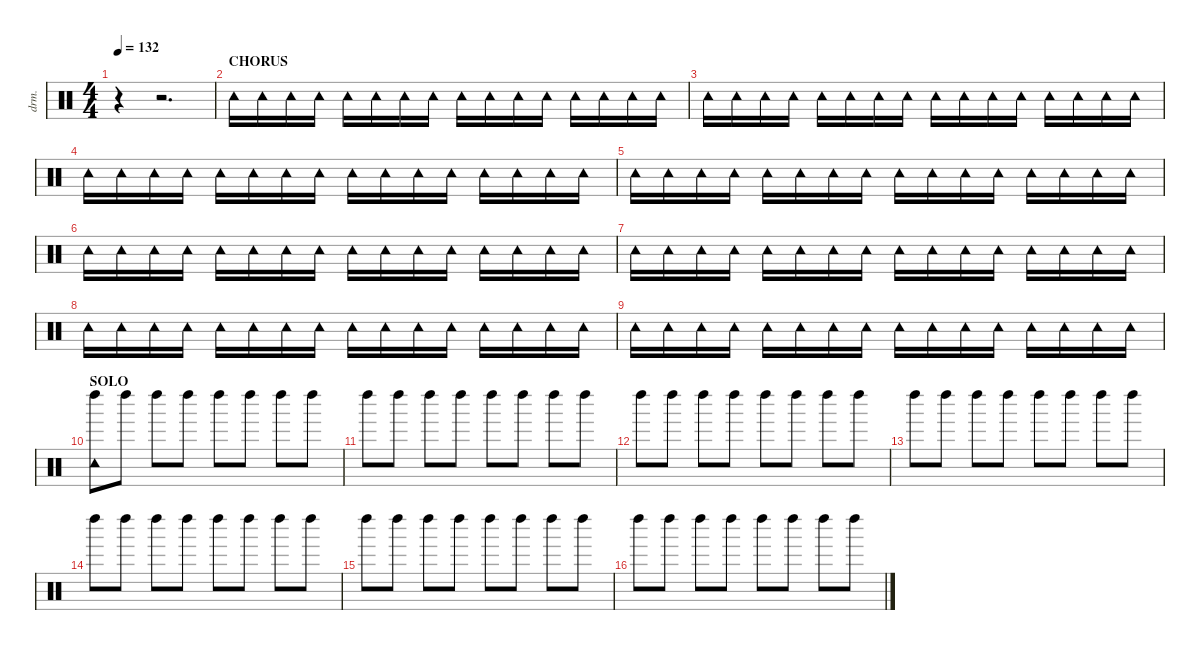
\defaultSystemsLayout 4
\hideDynamics
\bracketExtendMode nobrackets
\otherSystemsTrackNameOrientation horizontal
\track ("Percussion" "drm.") {instrument percussion}
\staff {score}
\articulation defaults
\ts (4 4)
\tempo 132
\clef neutral
\ks c
r.4{dy fff beam Down} r.2{d beam Down} |
\section ("" "CHORUS")
"Tambourine (hit)".16{dy f beam Down} "Tambourine (hit)".16{beam Down} "Tambourine (hit)".16{beam Down} "Tambourine (hit)".16{beam Down} "Tambourine (hit)".16{dy fff beam Down} "Tambourine (hit)".16{dy f beam Down} "Tambourine (hit)".16{beam Down} "Tambourine (hit)".16{beam Down} "Tambourine (hit)".16{beam Down} "Tambourine (hit)".16{beam Down} "Tambourine (hit)".16{beam Down} "Tambourine (hit)".16{beam Down} "Tambourine (hit)".16{dy fff beam Down} "Tambourine (hit)".16{dy f beam Down} "Tambourine (hit)".16{beam Down} "Tambourine (hit)".16{beam Down} |
"Tambourine (hit)".16{beam Down} "Tambourine (hit)".16{beam Down} "Tambourine (hit)".16{beam Down} "Tambourine (hit)".16{beam Down} "Tambourine (hit)".16{dy fff beam Down} "Tambourine (hit)".16{dy f beam Down} "Tambourine (hit)".16{beam Down} "Tambourine (hit)".16{beam Down} "Tambourine (hit)".16{beam Down} "Tambourine (hit)".16{beam Down} "Tambourine (hit)".16{beam Down} "Tambourine (hit)".16{beam Down} "Tambourine (hit)".16{dy fff beam Down} "Tambourine (hit)".16{dy f beam Down} "Tambourine (hit)".16{beam Down} "Tambourine (hit)".16{beam Down} |
"Tambourine (hit)".16{beam Down} "Tambourine (hit)".16{beam Down} "Tambourine (hit)".16{beam Down} "Tambourine (hit)".16{beam Down} "Tambourine (hit)".16{dy fff beam Down} "Tambourine (hit)".16{dy f beam Down} "Tambourine (hit)".16{beam Down} "Tambourine (hit)".16{beam Down} "Tambourine (hit)".16{beam Down} "Tambourine (hit)".16{beam Down} "Tambourine (hit)".16{beam Down} "Tambourine (hit)".16{beam Down} "Tambourine (hit)".16{dy fff beam Down} "Tambourine (hit)".16{dy f beam Down} "Tambourine (hit)".16{beam Down} "Tambourine (hit)".16{beam Down} |
"Tambourine (hit)".16{beam Down} "Tambourine (hit)".16{beam Down} "Tambourine (hit)".16{beam Down} "Tambourine (hit)".16{beam Down} "Tambourine (hit)".16{dy fff beam Down} "Tambourine (hit)".16{dy f beam Down} "Tambourine (hit)".16{beam Down} "Tambourine (hit)".16{beam Down} "Tambourine (hit)".16{beam Down} "Tambourine (hit)".16{beam Down} "Tambourine (hit)".16{beam Down} "Tambourine (hit)".16{beam Down} "Tambourine (hit)".16{dy fff beam Down} "Tambourine (hit)".16{dy f beam Down} "Tambourine (hit)".16{beam Down} "Tambourine (hit)".16{beam Down} |
"Tambourine (hit)".16{beam Down} "Tambourine (hit)".16{beam Down} "Tambourine (hit)".16{beam Down} "Tambourine (hit)".16{beam Down} "Tambourine (hit)".16{dy fff beam Down} "Tambourine (hit)".16{dy f beam Down} "Tambourine (hit)".16{beam Down} "Tambourine (hit)".16{beam Down} "Tambourine (hit)".16{beam Down} "Tambourine (hit)".16{beam Down} "Tambourine (hit)".16{beam Down} "Tambourine (hit)".16{beam Down} "Tambourine (hit)".16{dy fff beam Down} "Tambourine (hit)".16{dy f beam Down} "Tambourine (hit)".16{beam Down} "Tambourine (hit)".16{beam Down} |
"Tambourine (hit)".16{beam Down} "Tambourine (hit)".16{beam Down} "Tambourine (hit)".16{beam Down} "Tambourine (hit)".16{beam Down} "Tambourine (hit)".16{dy fff beam Down} "Tambourine (hit)".16{dy f beam Down} "Tambourine (hit)".16{beam Down} "Tambourine (hit)".16{beam Down} "Tambourine (hit)".16{beam Down} "Tambourine (hit)".16{beam Down} "Tambourine (hit)".16{beam Down} "Tambourine (hit)".16{beam Down} "Tambourine (hit)".16{dy fff beam Down} "Tambourine (hit)".16{dy f beam Down} "Tambourine (hit)".16{beam Down} "Tambourine (hit)".16{beam Down} |
"Tambourine (hit)".16{beam Down} "Tambourine (hit)".16{beam Down} "Tambourine (hit)".16{beam Down} "Tambourine (hit)".16{beam Down} "Tambourine (hit)".16{dy fff beam Down} "Tambourine (hit)".16{dy f beam Down} "Tambourine (hit)".16{beam Down} "Tambourine (hit)".16{beam Down} "Tambourine (hit)".16{beam Down} "Tambourine (hit)".16{beam Down} "Tambourine (hit)".16{beam Down} "Tambourine (hit)".16{beam Down} "Tambourine (hit)".16{dy fff beam Down} "Tambourine (hit)".16{dy f beam Down} "Tambourine (hit)".16{beam Down} "Tambourine (hit)".16{beam Down} |
"Tambourine (hit)".16{beam Down} "Tambourine (hit)".16{beam Down} "Tambourine (hit)".16{beam Down} "Tambourine (hit)".16{beam Down} "Tambourine (hit)".16{dy fff beam Down} "Tambourine (hit)".16{dy f beam Down} "Tambourine (hit)".16{beam Down} "Tambourine (hit)".16{beam Down} "Tambourine (hit)".16{beam Down} "Tambourine (hit)".16{beam Down} "Tambourine (hit)".16{beam Down} "Tambourine (hit)".16{beam Down} "Tambourine (hit)".16{dy fff beam Down} "Tambourine (hit)".16{dy f beam Down} "Tambourine (hit)".16{beam Down} "Tambourine (hit)".16{beam Down} |
\section ("" "SOLO ")
("Left Maraca (hit)" "Tambourine (hit)").8{beam Down} "Left Maraca (hit)".8{beam Down} "Left Maraca (hit)".8{dy fff beam Down} "Left Maraca (hit)".8{dy f beam Down} "Left Maraca (hit)".8{beam Down} "Left Maraca (hit)".8{beam Down} "Left Maraca (hit)".8{dy fff beam Down} "Left Maraca (hit)".8{dy f beam Down} |
"Left Maraca (hit)".8{beam Down} "Left Maraca (hit)".8{beam Down} "Left Maraca (hit)".8{dy fff beam Down} "Left Maraca (hit)".8{dy f beam Down} "Left Maraca (hit)".8{beam Down} "Left Maraca (hit)".8{beam Down} "Left Maraca (hit)".8{dy fff beam Down} "Left Maraca (hit)".8{dy f beam Down} |
"Left Maraca (hit)".8{beam Down} "Left Maraca (hit)".8{beam Down} "Left Maraca (hit)".8{dy fff beam Down} "Left Maraca (hit)".8{dy f beam Down} "Left Maraca (hit)".8{beam Down} "Left Maraca (hit)".8{beam Down} "Left Maraca (hit)".8{dy fff beam Down} "Left Maraca (hit)".8{dy f beam Down} |
"Left Maraca (hit)".8{beam Down} "Left Maraca (hit)".8{beam Down} "Left Maraca (hit)".8{dy fff beam Down} "Left Maraca (hit)".8{dy f beam Down} "Left Maraca (hit)".8{beam Down} "Left Maraca (hit)".8{beam Down} "Left Maraca (hit)".8{dy fff beam Down} "Left Maraca (hit)".8{dy f beam Down} |
"Left Maraca (hit)".8{beam Down} "Left Maraca (hit)".8{beam Down} "Left Maraca (hit)".8{dy fff beam Down} "Left Maraca (hit)".8{dy f beam Down} "Left Maraca (hit)".8{beam Down} "Left Maraca (hit)".8{beam Down} "Left Maraca (hit)".8{dy fff beam Down} "Left Maraca (hit)".8{dy f beam Down} |
"Left Maraca (hit)".8{beam Down} "Left Maraca (hit)".8{beam Down} "Left Maraca (hit)".8{dy fff beam Down} "Left Maraca (hit)".8{dy f beam Down} "Left Maraca (hit)".8{beam Down} "Left Maraca (hit)".8{beam Down} "Left Maraca (hit)".8{dy fff beam Down} "Left Maraca (hit)".8{dy f beam Down} |
"Left Maraca (hit)".8{beam Down} "Left Maraca (hit)".8{beam Down} "Left Maraca (hit)".8{dy fff beam Down} "Left Maraca (hit)".8{dy f beam Down} "Left Maraca (hit)".8{beam Down} "Left Maraca (hit)".8{beam Down} "Left Maraca (hit)".8{dy fff beam Down} "Left Maraca (hit)".8{dy f beam Down}
